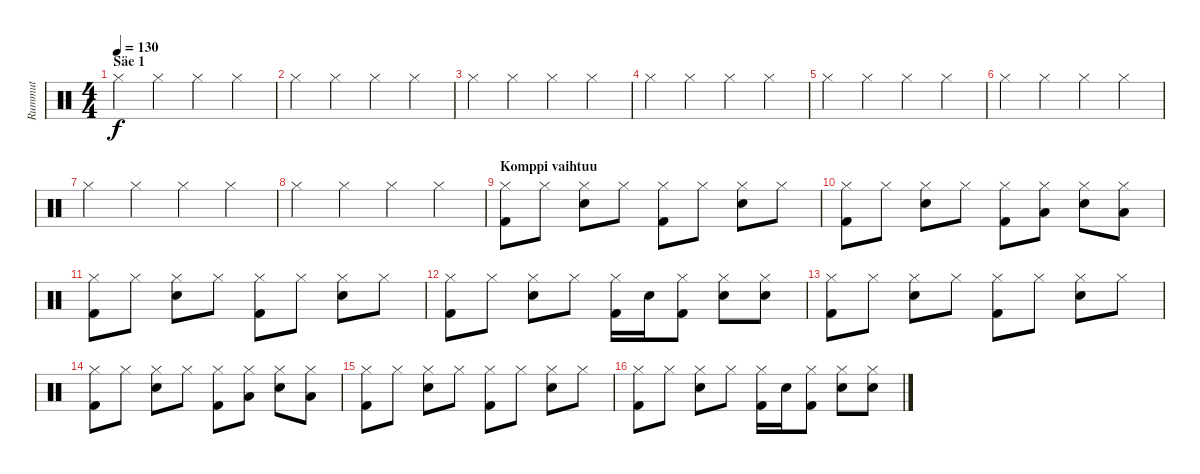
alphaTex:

\track ("Rummut" "Rummut") {instrument percussion}
\staff {score}
\articulation defaults
\ts (4 4)
\section ("" "Säe 1")
\tempo 130
\clef neutral
\ks c "Hi-Hat (closed)".4{dy f} "Hi-Hat (closed)".4 "Hi-Hat (closed)".4 "Hi-Hat (closed)".4
|
"Hi-Hat (closed)".4 "Hi-Hat (closed)".4 "Hi-Hat (closed)".4 "Hi-Hat (closed)".4 |
"Hi-Hat (closed)".4 "Hi-Hat (closed)".4 "Hi-Hat (closed)".4 "Hi-Hat (closed)".4 |
"Hi-Hat (closed)".4 "Hi-Hat (closed)".4 "Hi-Hat (closed)".4 "Hi-Hat (closed)".4 |
"Hi-Hat (closed)".4 "Hi-Hat (closed)".4 "Hi-Hat (closed)".4 "Hi-Hat (closed)".4 |
"Hi-Hat (closed)".4 "Hi-Hat (closed)".4 "Hi-Hat (closed)".4 "Hi-Hat (closed)".4 |
"Hi-Hat (closed)".4 "Hi-Hat (closed)".4 "Hi-Hat (closed)".4 "Hi-Hat (closed)".4 |
"Hi-Hat (closed)".4 "Hi-Hat (closed)".4 "Hi-Hat (closed)".4 "Hi-Hat (closed)".4 |
\section ("" "Komppi vaihtuu")
("Hi-Hat (closed)" "Kick (hit) 2").8 "Hi-Hat (closed)".8 ("Hi-Hat (closed)" "Snare (hit) 2").8 "Hi-Hat (closed)".8 ("Hi-Hat (closed)" "Kick (hit) 2").8 "Hi-Hat (closed)".8 ("Hi-Hat (closed)" "Snare (hit) 2").8 "Hi-Hat (closed)".8 |
("Hi-Hat (closed)" "Kick (hit) 2").8 "Hi-Hat (closed)".8 ("Hi-Hat (closed)" "Snare (hit) 2").8 "Hi-Hat (closed)".8 ("Hi-Hat (closed)" "Kick (hit) 2").8 ("Hi-Hat (closed)" "Low Tom (hit)").8 ("Hi-Hat (closed)" "Snare (hit) 2").8 ("Hi-Hat (closed)" "Low Floor Tom (hit)").8 |
("Hi-Hat (closed)" "Kick (hit) 2").8 "Hi-Hat (closed)".8 ("Hi-Hat (closed)" "Snare (hit) 2").8 "Hi-Hat (closed)".8 ("Hi-Hat (closed)" "Kick (hit) 2").8 "Hi-Hat (closed)".8 ("Hi-Hat (closed)" "Snare (hit) 2").8 "Hi-Hat (closed)".8 |
("Hi-Hat (closed)" "Kick (hit) 2").8 "Hi-Hat (closed)".8 ("Hi-Hat (closed)" "Snare (hit) 2").8 "Hi-Hat (closed)".8 ("Hi-Hat (closed)" "Kick (hit) 2").16 "Snare (hit) 2".16 ("Hi-Hat (closed)" "Kick (hit) 2").8 ("Hi-Hat (closed)" "Snare (hit) 2").8 ("Hi-Hat (closed)" "Snare (hit) 2").8 |
("Hi-Hat (closed)" "Kick (hit) 2").8 "Hi-Hat (closed)".8 ("Hi-Hat (closed)" "Snare (hit) 2").8 "Hi-Hat (closed)".8 ("Hi-Hat (closed)" "Kick (hit) 2").8 "Hi-Hat (closed)".8 ("Hi-Hat (closed)" "Snare (hit) 2").8 "Hi-Hat (closed)".8 |
("Hi-Hat (closed)" "Kick (hit) 2").8 "Hi-Hat (closed)".8 ("Hi-Hat (closed)" "Snare (hit) 2").8 "Hi-Hat (closed)".8 ("Hi-Hat (closed)" "Kick (hit) 2").8 ("Hi-Hat (closed)" "Low Tom (hit)").8 ("Hi-Hat (closed)" "Snare (hit) 2").8 ("Hi-Hat (closed)" "Low Floor Tom (hit)").8 |
("Hi-Hat (closed)" "Kick (hit) 2").8 "Hi-Hat (closed)".8 ("Hi-Hat (closed)" "Snare (hit) 2").8 "Hi-Hat (closed)".8 ("Hi-Hat (closed)" "Kick (hit) 2").8 "Hi-Hat (closed)".8 ("Hi-Hat (closed)" "Snare (hit) 2").8 "Hi-Hat (closed)".8 |
("Hi-Hat (closed)" "Kick (hit) 2").8 "Hi-Hat (closed)".8 ("Hi-Hat (closed)" "Snare (hit) 2").8 "Hi-Hat (closed)".8 ("Hi-Hat (closed)" "Kick (hit) 2").16 "Snare (hit) 2".16 ("Hi-Hat (closed)" "Kick (hit) 2").8 ("Hi-Hat (closed)" "Snare (hit) 2").8 ("Hi-Hat (closed)" "Snare (hit) 2").8
